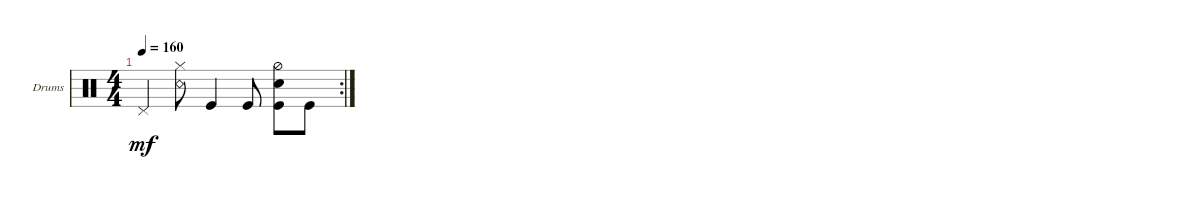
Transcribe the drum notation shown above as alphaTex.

\defaultSystemsLayout 4
\bracketExtendMode groupsimilarinstruments
\firstSystemTrackNameOrientation horizontal
\otherSystemsTrackNameOrientation horizontal
\track ("Drumkit" "Drums") {instrument percussion}
\staff {score}
\articulation defaults
\rc 2
\ts (4 4)
\tempo 160
\clef neutral
\ks c "Pedal Hi-Hat (hit)".4{dy mf}
("Hi-Hat (closed)" "Snare (rim shot)").8 "Kick (hit)".4 "Kick (hit)".8 ("Kick (hit)" "Snare (hit) 2" "Hi-Hat (half)").8 "Kick (hit)".8
